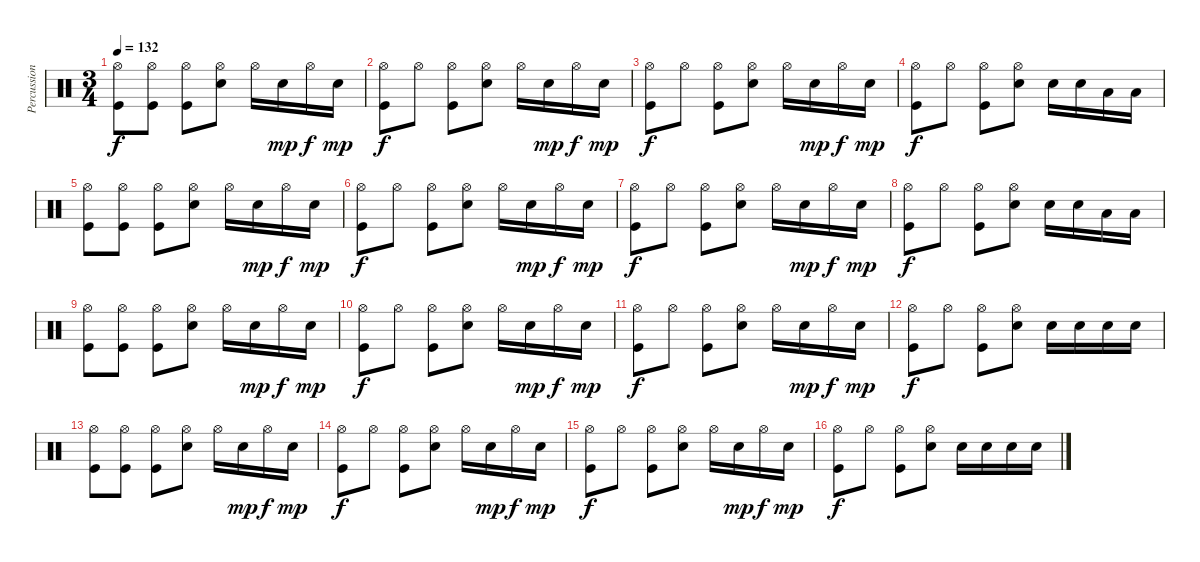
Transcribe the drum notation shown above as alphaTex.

\track ("Percussion" "Percussion") {instrument percussion}
\staff {score}
\articulation defaults
\ts (3 4)
\tempo 132
\clef neutral
\ks c
("Hi-Hat (open)" "Kick (hit)").8{dy f} ("Hi-Hat (open)" "Kick (hit)").8 ("Hi-Hat (open)" "Kick (hit)").8 ("Hi-Hat (open)" "Snare (hit) 2").8 "Hi-Hat (open)".16 "Snare (hit) 2".16{dy mp} "Hi-Hat (open)".16{dy f} "Snare (hit) 2".16{dy mp} |
("Hi-Hat (open)" "Kick (hit)").8{dy f} "Hi-Hat (open)".8 ("Hi-Hat (open)" "Kick (hit)").8 ("Hi-Hat (open)" "Snare (hit) 2").8 "Hi-Hat (open)".16 "Snare (hit) 2".16{dy mp} "Hi-Hat (open)".16{dy f} "Snare (hit) 2".16{dy mp} |
("Hi-Hat (open)" "Kick (hit)").8{dy f} "Hi-Hat (open)".8 ("Hi-Hat (open)" "Kick (hit)").8 ("Hi-Hat (open)" "Snare (hit) 2").8 "Hi-Hat (open)".16 "Snare (hit) 2".16{dy mp} "Hi-Hat (open)".16{dy f} "Snare (hit) 2".16{dy mp} |
("Hi-Hat (open)" "Kick (hit)").8{dy f} "Hi-Hat (open)".8 ("Hi-Hat (open)" "Kick (hit)").8 ("Hi-Hat (open)" "Snare (hit) 2").8 "Snare (hit) 2".16 "Snare (hit) 2".16 "Low Tom (hit)".16 "Low Tom (hit)".16 |
("Hi-Hat (open)" "Kick (hit)").8 ("Hi-Hat (open)" "Kick (hit)").8 ("Hi-Hat (open)" "Kick (hit)").8 ("Hi-Hat (open)" "Snare (hit) 2").8 "Hi-Hat (open)".16 "Snare (hit) 2".16{dy mp} "Hi-Hat (open)".16{dy f} "Snare (hit) 2".16{dy mp} |
("Hi-Hat (open)" "Kick (hit)").8{dy f} "Hi-Hat (open)".8 ("Hi-Hat (open)" "Kick (hit)").8 ("Hi-Hat (open)" "Snare (hit) 2").8 "Hi-Hat (open)".16 "Snare (hit) 2".16{dy mp} "Hi-Hat (open)".16{dy f} "Snare (hit) 2".16{dy mp} |
("Hi-Hat (open)" "Kick (hit)").8{dy f} "Hi-Hat (open)".8 ("Hi-Hat (open)" "Kick (hit)").8 ("Hi-Hat (open)" "Snare (hit) 2").8 "Hi-Hat (open)".16 "Snare (hit) 2".16{dy mp} "Hi-Hat (open)".16{dy f} "Snare (hit) 2".16{dy mp} |
("Hi-Hat (open)" "Kick (hit)").8{dy f} "Hi-Hat (open)".8 ("Hi-Hat (open)" "Kick (hit)").8 ("Hi-Hat (open)" "Snare (hit) 2").8 "Snare (hit) 2".16 "Snare (hit) 2".16 "Low Tom (hit)".16 "Low Tom (hit)".16 |
("Hi-Hat (open)" "Kick (hit)").8 ("Hi-Hat (open)" "Kick (hit)").8 ("Hi-Hat (open)" "Kick (hit)").8 ("Hi-Hat (open)" "Snare (hit) 2").8 "Hi-Hat (open)".16 "Snare (hit) 2".16{dy mp} "Hi-Hat (open)".16{dy f} "Snare (hit) 2".16{dy mp} |
("Hi-Hat (open)" "Kick (hit)").8{dy f} "Hi-Hat (open)".8 ("Hi-Hat (open)" "Kick (hit)").8 ("Hi-Hat (open)" "Snare (hit) 2").8 "Hi-Hat (open)".16 "Snare (hit) 2".16{dy mp} "Hi-Hat (open)".16{dy f} "Snare (hit) 2".16{dy mp} |
("Hi-Hat (open)" "Kick (hit)").8{dy f} "Hi-Hat (open)".8 ("Hi-Hat (open)" "Kick (hit)").8 ("Hi-Hat (open)" "Snare (hit) 2").8 "Hi-Hat (open)".16 "Snare (hit) 2".16{dy mp} "Hi-Hat (open)".16{dy f} "Snare (hit) 2".16{dy mp} |
("Hi-Hat (open)" "Kick (hit)").8{dy f} "Hi-Hat (open)".8 ("Hi-Hat (open)" "Kick (hit)").8 ("Hi-Hat (open)" "Snare (hit) 2").8 "Snare (hit) 2".16 "Snare (hit) 2".16 "Snare (hit) 2".16 "Snare (hit) 2".16 |
("Hi-Hat (open)" "Kick (hit)").8 ("Hi-Hat (open)" "Kick (hit)").8 ("Hi-Hat (open)" "Kick (hit)").8 ("Hi-Hat (open)" "Snare (hit) 2").8 "Hi-Hat (open)".16 "Snare (hit) 2".16{dy mp} "Hi-Hat (open)".16{dy f} "Snare (hit) 2".16{dy mp} |
("Hi-Hat (open)" "Kick (hit)").8{dy f} "Hi-Hat (open)".8 ("Hi-Hat (open)" "Kick (hit)").8 ("Hi-Hat (open)" "Snare (hit) 2").8 "Hi-Hat (open)".16 "Snare (hit) 2".16{dy mp} "Hi-Hat (open)".16{dy f} "Snare (hit) 2".16{dy mp} |
("Hi-Hat (open)" "Kick (hit)").8{dy f} "Hi-Hat (open)".8 ("Hi-Hat (open)" "Kick (hit)").8 ("Hi-Hat (open)" "Snare (hit) 2").8 "Hi-Hat (open)".16 "Snare (hit) 2".16{dy mp} "Hi-Hat (open)".16{dy f} "Snare (hit) 2".16{dy mp} |
("Hi-Hat (open)" "Kick (hit)").8{dy f} "Hi-Hat (open)".8 ("Hi-Hat (open)" "Kick (hit)").8 ("Hi-Hat (open)" "Snare (hit) 2").8 "Snare (hit) 2".16 "Snare (hit) 2".16 "Snare (hit) 2".16 "Snare (hit) 2".16
